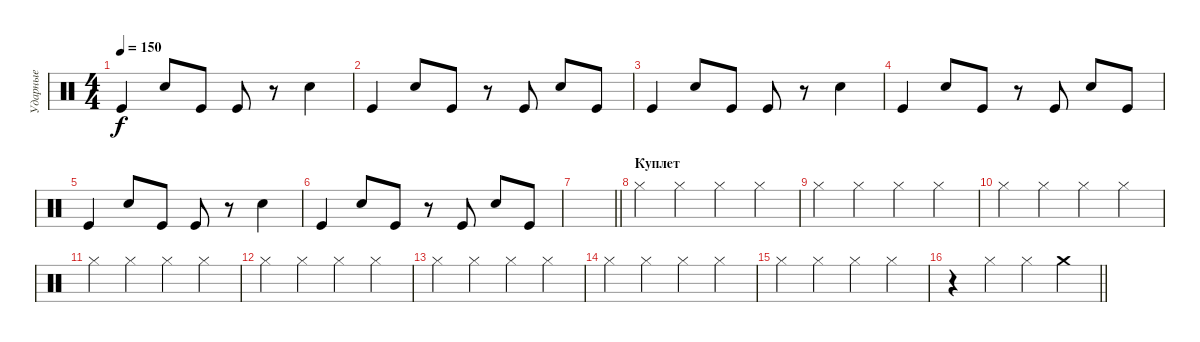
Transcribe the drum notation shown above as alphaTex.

\track ("Ударные" "Ударные") {instrument percussion}
\staff {score}
\articulation defaults
\ts (4 4)
\tempo 150
\clef neutral
\ks c "Kick (hit)".4{dy f} "Snare (hit) 2".8 "Kick (hit)".8 "Kick (hit)".8
r.8 "Snare (hit) 2".4 |
"Kick (hit)".4 "Snare (hit) 2".8 "Kick (hit)".8 r.8 "Kick (hit)".8 "Snare (hit) 2".8 "Kick (hit)".8 |
"Kick (hit)".4 "Snare (hit) 2".8 "Kick (hit)".8 "Kick (hit)".8 r.8 "Snare (hit) 2".4 |
"Kick (hit)".4 "Snare (hit) 2".8 "Kick (hit)".8 r.8 "Kick (hit)".8 "Snare (hit) 2".8 "Kick (hit)".8 |
"Kick (hit)".4 "Snare (hit) 2".8 "Kick (hit)".8 "Kick (hit)".8 r.8 "Snare (hit) 2".4 |
"Kick (hit)".4 "Snare (hit) 2".8 "Kick (hit)".8 r.8 "Kick (hit)".8 "Snare (hit) 2".8 "Kick (hit)".8 |
\barLineRight lightlight
|
\section ("" "Куплет")
"Hi-Hat (closed)".4 "Hi-Hat (closed)".4 "Hi-Hat (closed)".4 "Hi-Hat (closed)".4 |
"Hi-Hat (closed)".4 "Hi-Hat (closed)".4 "Hi-Hat (closed)".4 "Hi-Hat (closed)".4 |
"Hi-Hat (closed)".4 "Hi-Hat (closed)".4 "Hi-Hat (closed)".4 "Hi-Hat (closed)".4 |
"Hi-Hat (closed)".4 "Hi-Hat (closed)".4 "Hi-Hat (closed)".4 "Hi-Hat (closed)".4 |
"Hi-Hat (closed)".4 "Hi-Hat (closed)".4 "Hi-Hat (closed)".4 "Hi-Hat (closed)".4 |
"Hi-Hat (closed)".4 "Hi-Hat (closed)".4 "Hi-Hat (closed)".4 "Hi-Hat (closed)".4 |
"Hi-Hat (closed)".4 "Hi-Hat (closed)".4 "Hi-Hat (closed)".4 "Hi-Hat (closed)".4 |
"Hi-Hat (closed)".4 "Hi-Hat (closed)".4 "Hi-Hat (closed)".4 "Hi-Hat (closed)".4 |
\barLineRight lightlight
r.4 "Hi-Hat (closed)".4 "Hi-Hat (closed)".4 "Crash medium (hit)".4
